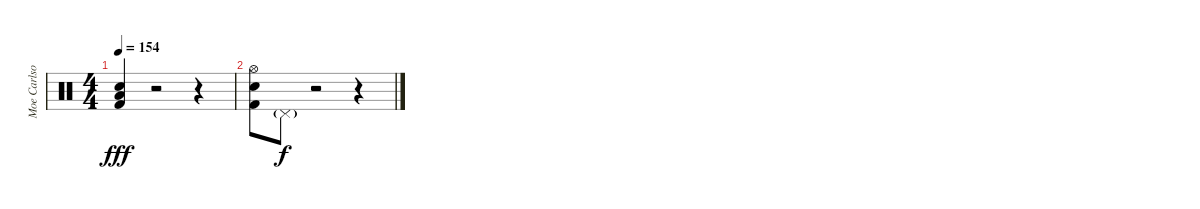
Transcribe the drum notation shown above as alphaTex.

\track ("Moe Carlson - Percussion" "Moe Carlso") {instrument percussion}
\staff {score}
\articulation defaults
\ts (4 4)
\tempo 155
\tempo 154
\clef neutral
\ks c
("Electric Snare (hit)" "Low Floor Tom (hit)" "Kick (hit) 2").4{dy fff} r.2 r.4 |
("Hi-Hat (open)" "Electric Snare (hit)" "Kick (hit) 2").8 "Pedal Hi-Hat (hit)"{g}.8{dy f} r.2 r.4
